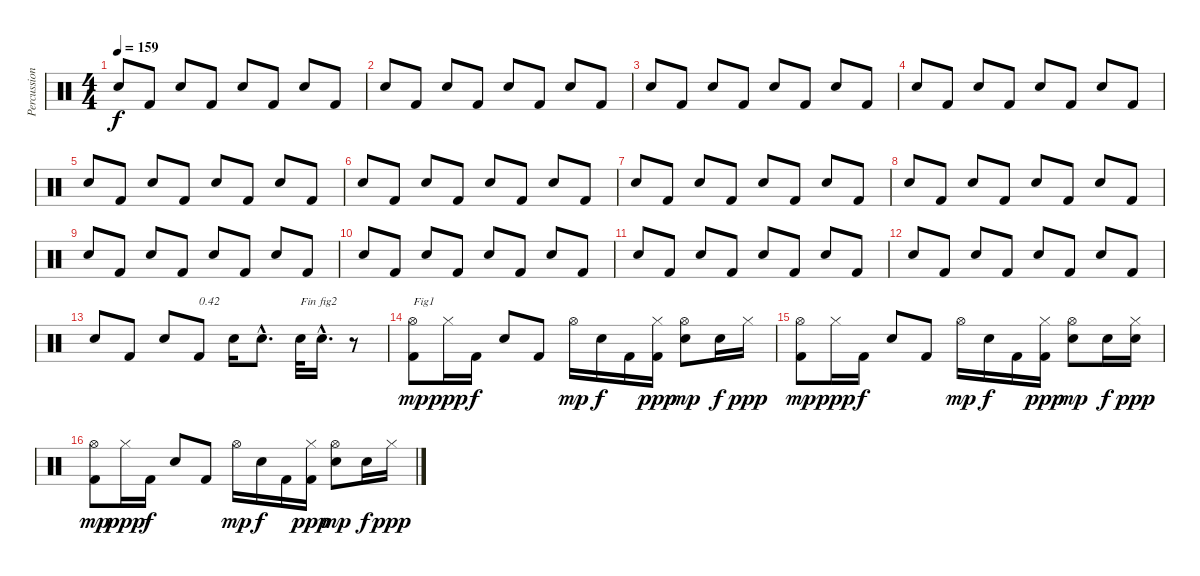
\track ("Percussions" "Percussion") {instrument percussion}
\staff {score}
\articulation defaults
\ts (4 4)
\tempo 159
\clef neutral
\ks c "Electric Snare (hit)".8{dy f} "Kick (hit) 2".8 "Electric Snare (hit)".8 "Kick (hit) 2".8 "Electric Snare (hit)".8 "Kick (hit) 2".8 "Electric Snare (hit)".8 "Kick (hit) 2".8
|
"Electric Snare (hit)".8 "Kick (hit) 2".8 "Electric Snare (hit)".8 "Kick (hit) 2".8 "Electric Snare (hit)".8 "Kick (hit) 2".8 "Electric Snare (hit)".8 "Kick (hit) 2".8 |
"Electric Snare (hit)".8 "Kick (hit) 2".8 "Electric Snare (hit)".8 "Kick (hit) 2".8 "Electric Snare (hit)".8 "Kick (hit) 2".8 "Electric Snare (hit)".8 "Kick (hit) 2".8 |
"Electric Snare (hit)".8 "Kick (hit) 2".8 "Electric Snare (hit)".8 "Kick (hit) 2".8 "Electric Snare (hit)".8 "Kick (hit) 2".8 "Electric Snare (hit)".8 "Kick (hit) 2".8 |
"Electric Snare (hit)".8 "Kick (hit) 2".8 "Electric Snare (hit)".8 "Kick (hit) 2".8 "Electric Snare (hit)".8 "Kick (hit) 2".8 "Electric Snare (hit)".8 "Kick (hit) 2".8 |
"Electric Snare (hit)".8 "Kick (hit) 2".8 "Electric Snare (hit)".8 "Kick (hit) 2".8 "Electric Snare (hit)".8 "Kick (hit) 2".8 "Electric Snare (hit)".8 "Kick (hit) 2".8 |
"Electric Snare (hit)".8 "Kick (hit) 2".8 "Electric Snare (hit)".8 "Kick (hit) 2".8 "Electric Snare (hit)".8 "Kick (hit) 2".8 "Electric Snare (hit)".8 "Kick (hit) 2".8 |
"Electric Snare (hit)".8 "Kick (hit) 2".8 "Electric Snare (hit)".8 "Kick (hit) 2".8 "Electric Snare (hit)".8 "Kick (hit) 2".8 "Electric Snare (hit)".8 "Kick (hit) 2".8 |
"Electric Snare (hit)".8 "Kick (hit) 2".8 "Electric Snare (hit)".8 "Kick (hit) 2".8 "Electric Snare (hit)".8 "Kick (hit) 2".8 "Electric Snare (hit)".8 "Kick (hit) 2".8 |
"Electric Snare (hit)".8 "Kick (hit) 2".8 "Electric Snare (hit)".8 "Kick (hit) 2".8 "Electric Snare (hit)".8 "Kick (hit) 2".8 "Electric Snare (hit)".8 "Kick (hit) 2".8 |
"Electric Snare (hit)".8 "Kick (hit) 2".8 "Electric Snare (hit)".8 "Kick (hit) 2".8 "Electric Snare (hit)".8 "Kick (hit) 2".8 "Electric Snare (hit)".8 "Kick (hit) 2".8 |
"Electric Snare (hit)".8 "Kick (hit) 2".8 "Electric Snare (hit)".8 "Kick (hit) 2".8 "Electric Snare (hit)".8 "Kick (hit) 2".8 "Electric Snare (hit)".8 "Kick (hit) 2".8 |
"Electric Snare (hit)".8 "Kick (hit) 2".8 "Electric Snare (hit)".8 "Kick (hit) 2".8{txt "0.42"} "Electric Snare (hit)".16 "Electric Snare (hit)"{hac}.8{d} "Electric Snare (hit)".32{txt "Fin fig2"} "Electric Snare (hit)"{hac}.16{d} r.8 |
("Kick (hit) 2" "Hi-Hat (open)").8{txt "Fig1" dy mp} "Hi-Hat (closed)".16{dy ppp} "Kick (hit) 2".16{dy f} "Electric Snare (hit)".8 "Kick (hit) 2".8 "Hi-Hat (open)".16{dy mp} "Electric Snare (hit)".16{dy f} "Kick (hit) 2".16 ("Kick (hit) 2" "Hi-Hat (closed)").16{dy ppp} ("Electric Snare (hit)" "Hi-Hat (open)").8{dy mp} "Electric Snare (hit)".16{dy f} "Hi-Hat (closed)".16{dy ppp} |
("Kick (hit) 2" "Hi-Hat (open)").8{dy mp} "Hi-Hat (closed)".16{dy ppp} "Kick (hit) 2".16{dy f} "Electric Snare (hit)".8 "Kick (hit) 2".8 "Hi-Hat (open)".16{dy mp} "Electric Snare (hit)".16{dy f} "Kick (hit) 2".16 ("Kick (hit) 2" "Hi-Hat (closed)").16{dy ppp} ("Electric Snare (hit)" "Hi-Hat (open)").8{dy mp} "Electric Snare (hit)".16{dy f} ("Electric Snare (hit)" "Hi-Hat (closed)").16{dy ppp} |
("Kick (hit) 2" "Hi-Hat (open)").8{dy mp} "Hi-Hat (closed)".16{dy ppp} "Kick (hit) 2".16{dy f} "Electric Snare (hit)".8 "Kick (hit) 2".8 "Hi-Hat (open)".16{dy mp} "Electric Snare (hit)".16{dy f} "Kick (hit) 2".16 ("Kick (hit) 2" "Hi-Hat (closed)").16{dy ppp} ("Electric Snare (hit)" "Hi-Hat (open)").8{dy mp} "Electric Snare (hit)".16{dy f} "Hi-Hat (closed)".16{dy ppp}
